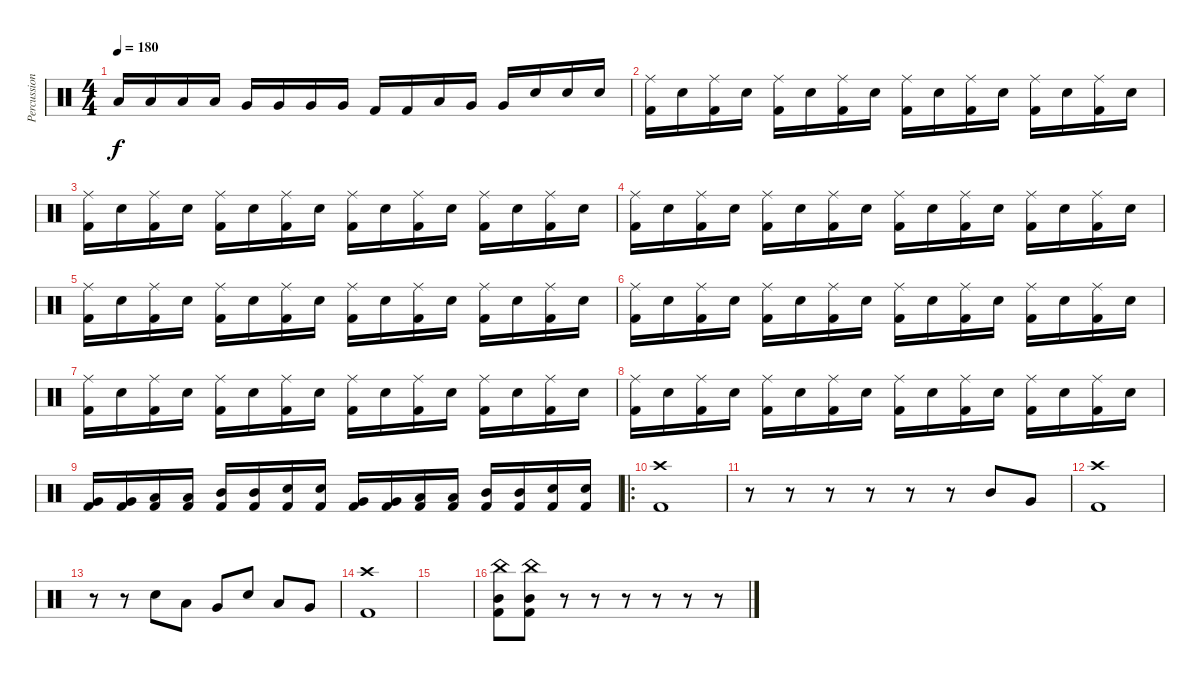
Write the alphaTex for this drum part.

\track ("Percussion" "Percussion") {instrument percussion}
\staff {score}
\articulation defaults
\ts (4 4)
\tempo 180
\clef neutral
\ks c "Low Tom (hit)".16{dy f} "Low Tom (hit)".16 "Low Tom (hit)".16 "Low Tom (hit)".16 "Very Low Tom (hit)".16 "Very Low Tom (hit)".16 "Very Low Tom (hit)".16 "Very Low Tom (hit)".16 "Kick (hit) 2".16 "Kick (hit) 2".16 "Low Tom (hit)".16 "Very Low Tom (hit)".16 "Very Low Tom (hit)".16 "Electric Snare (hit)".16 "Electric Snare (hit)".16 "Electric Snare (hit)".16
|
("Ride (middle)" "Kick (hit) 2").16 "Electric Snare (hit)".16 ("Ride (middle)" "Kick (hit) 2").16 "Electric Snare (hit)".16 ("Ride (middle)" "Kick (hit) 2").16 "Electric Snare (hit)".16 ("Ride (middle)" "Kick (hit) 2").16 "Electric Snare (hit)".16 ("Ride (middle)" "Kick (hit) 2").16 "Electric Snare (hit)".16 ("Ride (middle)" "Kick (hit) 2").16 "Electric Snare (hit)".16 ("Ride (middle)" "Kick (hit) 2").16 "Electric Snare (hit)".16 ("Ride (middle)" "Kick (hit) 2").16 "Electric Snare (hit)".16 |
("Ride (middle)" "Kick (hit) 2").16 "Electric Snare (hit)".16 ("Ride (middle)" "Kick (hit) 2").16 "Electric Snare (hit)".16 ("Ride (middle)" "Kick (hit) 2").16 "Electric Snare (hit)".16 ("Ride (middle)" "Kick (hit) 2").16 "Electric Snare (hit)".16 ("Ride (middle)" "Kick (hit) 2").16 "Electric Snare (hit)".16 ("Ride (middle)" "Kick (hit) 2").16 "Electric Snare (hit)".16 ("Ride (middle)" "Kick (hit) 2").16 "Electric Snare (hit)".16 ("Ride (middle)" "Kick (hit) 2").16 "Electric Snare (hit)".16 |
("Ride (middle)" "Kick (hit) 2").16 "Electric Snare (hit)".16 ("Ride (middle)" "Kick (hit) 2").16 "Electric Snare (hit)".16 ("Ride (middle)" "Kick (hit) 2").16 "Electric Snare (hit)".16 ("Ride (middle)" "Kick (hit) 2").16 "Electric Snare (hit)".16 ("Ride (middle)" "Kick (hit) 2").16 "Electric Snare (hit)".16 ("Ride (middle)" "Kick (hit) 2").16 "Electric Snare (hit)".16 ("Ride (middle)" "Kick (hit) 2").16 "Electric Snare (hit)".16 ("Ride (middle)" "Kick (hit) 2").16 "Electric Snare (hit)".16 |
("Ride (middle)" "Kick (hit) 2").16 "Electric Snare (hit)".16 ("Ride (middle)" "Kick (hit) 2").16 "Electric Snare (hit)".16 ("Ride (middle)" "Kick (hit) 2").16 "Electric Snare (hit)".16 ("Ride (middle)" "Kick (hit) 2").16 "Electric Snare (hit)".16 ("Ride (middle)" "Kick (hit) 2").16 "Electric Snare (hit)".16 ("Ride (middle)" "Kick (hit) 2").16 "Electric Snare (hit)".16 ("Ride (middle)" "Kick (hit) 2").16 "Electric Snare (hit)".16 ("Ride (middle)" "Kick (hit) 2").16 "Electric Snare (hit)".16 |
("Ride (middle)" "Kick (hit) 2").16 "Electric Snare (hit)".16 ("Ride (middle)" "Kick (hit) 2").16 "Electric Snare (hit)".16 ("Ride (middle)" "Kick (hit) 2").16 "Electric Snare (hit)".16 ("Ride (middle)" "Kick (hit) 2").16 "Electric Snare (hit)".16 ("Ride (middle)" "Kick (hit) 2").16 "Electric Snare (hit)".16 ("Ride (middle)" "Kick (hit) 2").16 "Electric Snare (hit)".16 ("Ride (middle)" "Kick (hit) 2").16 "Electric Snare (hit)".16 ("Ride (middle)" "Kick (hit) 2").16 "Electric Snare (hit)".16 |
("Ride (middle)" "Kick (hit) 2").16 "Electric Snare (hit)".16 ("Ride (middle)" "Kick (hit) 2").16 "Electric Snare (hit)".16 ("Ride (middle)" "Kick (hit) 2").16 "Electric Snare (hit)".16 ("Ride (middle)" "Kick (hit) 2").16 "Electric Snare (hit)".16 ("Ride (middle)" "Kick (hit) 2").16 "Electric Snare (hit)".16 ("Ride (middle)" "Kick (hit) 2").16 "Electric Snare (hit)".16 ("Ride (middle)" "Kick (hit) 2").16 "Electric Snare (hit)".16 ("Ride (middle)" "Kick (hit) 2").16 "Electric Snare (hit)".16 |
("Ride (middle)" "Kick (hit) 2").16 "Electric Snare (hit)".16 ("Ride (middle)" "Kick (hit) 2").16 "Electric Snare (hit)".16 ("Ride (middle)" "Kick (hit) 2").16 "Electric Snare (hit)".16 ("Ride (middle)" "Kick (hit) 2").16 "Electric Snare (hit)".16 ("Ride (middle)" "Kick (hit) 2").16 "Electric Snare (hit)".16 ("Ride (middle)" "Kick (hit) 2").16 "Electric Snare (hit)".16 ("Ride (middle)" "Kick (hit) 2").16 "Electric Snare (hit)".16 ("Ride (middle)" "Kick (hit) 2").16 "Electric Snare (hit)".16 |
("Very Low Tom (hit)" "Kick (hit) 2").16 ("Very Low Tom (hit)" "Kick (hit) 2").16 ("Low Tom (hit)" "Kick (hit) 2").16 ("Low Tom (hit)" "Kick (hit) 2").16 ("Mid Tom (hit)" "Kick (hit) 2").16 ("Mid Tom (hit)" "Kick (hit) 2").16 ("Electric Snare (hit)" "Kick (hit) 2").16 ("Electric Snare (hit)" "Kick (hit) 2").16 ("Very Low Tom (hit)" "Kick (hit) 2").16 ("Very Low Tom (hit)" "Kick (hit) 2").16 ("Low Tom (hit)" "Kick (hit) 2").16 ("Low Tom (hit)" "Kick (hit) 2").16 ("Mid Tom (hit)" "Kick (hit) 2").16 ("Mid Tom (hit)" "Kick (hit) 2").16 ("Electric Snare (hit)" "Kick (hit) 2").16 ("Electric Snare (hit)" "Kick (hit) 2").16 |
\ro
("Crash high (hit)" "Kick (hit) 2").1 |
r.8 r.8 r.8 r.8 r.8 r.8 "Mid Tom (hit)".8 "Very Low Tom (hit)".8 |
("Crash high (hit)" "Kick (hit) 2").1 |
r.8 r.8 "Electric Snare (hit)".8 "Low Tom (hit)".8 "Very Low Tom (hit)".8 "Electric Snare (hit)".8 "Low Tom (hit)".8 "Very Low Tom (hit)".8 |
("Crash high (hit)" "Kick (hit) 2").1 |
|
("China (hit)" "Mid Tom (hit)" "Kick (hit) 2").8 ("China (hit)" "Mid Tom (hit)" "Kick (hit) 2").8 r.8 r.8 r.8 r.8 r.8 r.8
